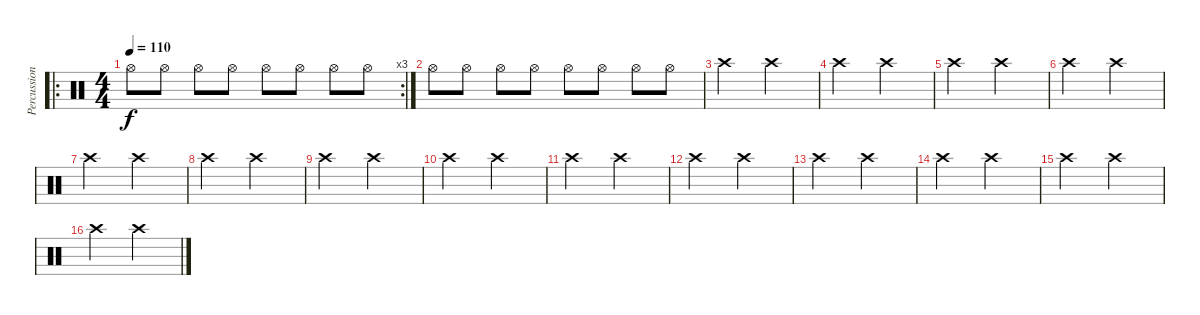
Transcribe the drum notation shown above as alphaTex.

\track ("Percussions" "Percussion") {instrument percussion}
\staff {score}
\articulation defaults
\ro
\rc 3
\ts (4 4)
\tempo 110
\clef neutral
\ks c "Hi-Hat (open)".8{dy f} "Hi-Hat (open)".8 "Hi-Hat (open)".8 "Hi-Hat (open)".8 "Hi-Hat (open)".8 "Hi-Hat (open)".8 "Hi-Hat (open)".8 "Hi-Hat (open)".8
|
"Hi-Hat (open)".8 "Hi-Hat (open)".8 "Hi-Hat (open)".8 "Hi-Hat (open)".8 "Hi-Hat (open)".8 "Hi-Hat (open)".8 "Hi-Hat (open)".8 "Hi-Hat (open)".8 |
"Crash high (hit)".2 "Crash high (hit)".2 |
"Crash high (hit)".2 "Crash high (hit)".2 |
"Crash high (hit)".2 "Crash high (hit)".2 |
"Crash high (hit)".2 "Crash high (hit)".2 |
"Crash high (hit)".2 "Crash high (hit)".2 |
"Crash high (hit)".2 "Crash high (hit)".2 |
"Crash high (hit)".2 "Crash high (hit)".2 |
"Crash high (hit)".2 "Crash high (hit)".2 |
"Crash high (hit)".2 "Crash high (hit)".2 |
"Crash high (hit)".2 "Crash high (hit)".2 |
"Crash high (hit)".2 "Crash high (hit)".2 |
"Crash high (hit)".2 "Crash high (hit)".2 |
"Crash high (hit)".2 "Crash high (hit)".2 |
"Crash high (hit)".2 "Crash high (hit)".2
